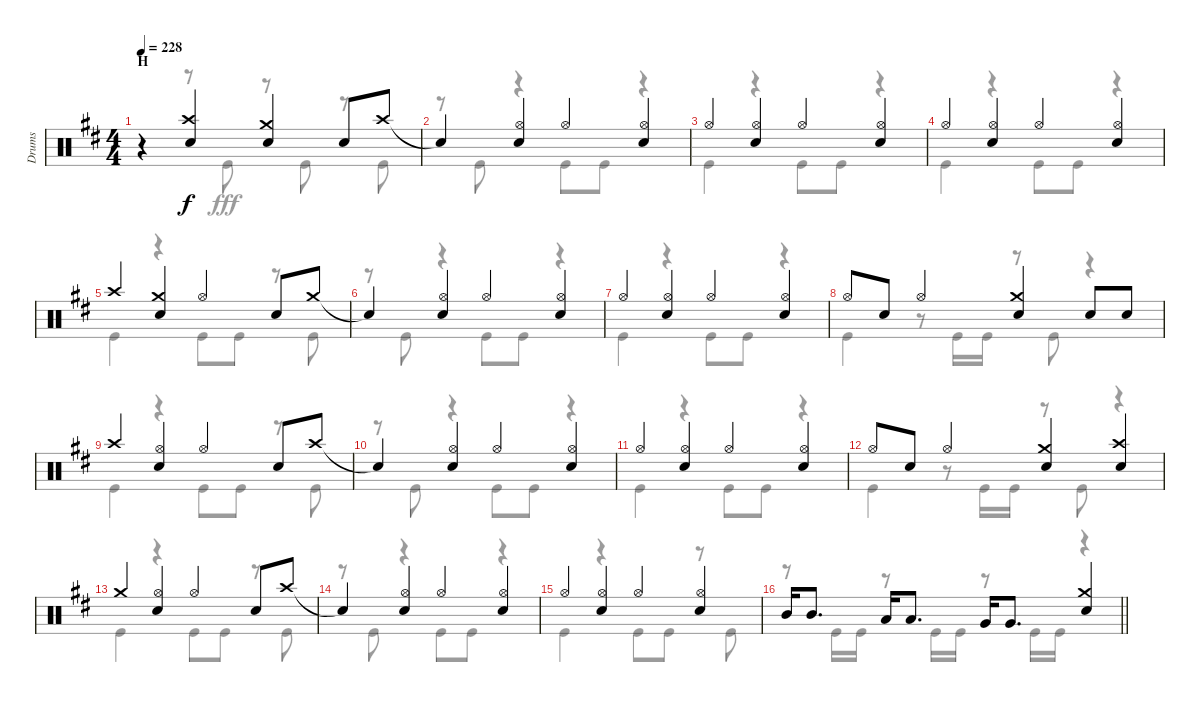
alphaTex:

\track ("Drums" "Drums") {instrument percussion}
\staff {score}
\articulation defaults
\voice
\ts (4 4)
\section ("" "H")
\tempo 228
\clef neutral
\ks d
r.4{dy f} ("Crash high (hit)" "Snare (hit) 2").4 ("Crash medium (hit)" "Snare (hit) 2").4 "Snare (hit) 2".8 "Crash high (hit)".8 |
"Snare (hit)"{t}.4 ("Hi-Hat (open)" "Snare (hit) 2").4 "Hi-Hat (open)".4 ("Hi-Hat (open)" "Snare (hit) 2").4 |
"Hi-Hat (open)".4 ("Hi-Hat (open)" "Snare (hit) 2").4 "Hi-Hat (open)".4 ("Hi-Hat (open)" "Snare (hit) 2").4 |
"Hi-Hat (open)".4 ("Hi-Hat (open)" "Snare (hit) 2").4 "Hi-Hat (open)".4 ("Hi-Hat (open)" "Snare (hit) 2").4 |
"Crash high (hit)".4 ("Crash medium (hit)" "Snare (hit) 2").4 "Hi-Hat (open)".4 "Snare (hit) 2".8 "Crash medium (hit)".8 |
"Snare (hit)"{t}.4 ("Hi-Hat (open)" "Snare (hit) 2").4 "Hi-Hat (open)".4 ("Hi-Hat (open)" "Snare (hit) 2").4 |
"Hi-Hat (open)".4 ("Hi-Hat (open)" "Snare (hit) 2").4 "Hi-Hat (open)".4 ("Hi-Hat (open)" "Snare (hit) 2").4 |
"Hi-Hat (open)".8 "Snare (hit) 2".8 "Hi-Hat (open)".4 ("Crash medium (hit)" "Snare (hit) 2").4 "Snare (hit) 2".8 "Snare (hit) 2".8 |
"Crash high (hit)".4 ("Hi-Hat (open)" "Snare (hit) 2").4 "Hi-Hat (open)".4 "Snare (hit) 2".8 "Crash high (hit)".8 |
"Snare (hit)"{t}.4 ("Hi-Hat (open)" "Snare (hit) 2").4 "Hi-Hat (open)".4 ("Hi-Hat (open)" "Snare (hit) 2").4 |
"Hi-Hat (open)".4 ("Hi-Hat (open)" "Snare (hit) 2").4 "Hi-Hat (open)".4 ("Hi-Hat (open)" "Snare (hit) 2").4 |
"Hi-Hat (open)".8 "Snare (hit) 2".8 "Hi-Hat (open)".4 ("Crash medium (hit)" "Snare (hit) 2").4 ("Crash high (hit)" "Snare (hit) 2").4 |
"Crash medium (hit)".4 ("Hi-Hat (open)" "Snare (hit) 2").4 "Hi-Hat (open)".4 "Snare (hit) 2".8 "Crash high (hit)".8 |
"Snare (hit)"{t}.4 ("Hi-Hat (open)" "Snare (hit) 2").4 "Hi-Hat (open)".4 ("Hi-Hat (open)" "Snare (hit) 2").4 |
"Hi-Hat (open)".4 ("Hi-Hat (open)" "Snare (hit) 2").4 "Hi-Hat (open)".4 ("Hi-Hat (open)" "Snare (hit) 2").4 |
\barLineRight lightlight "Mid Tom (hit)".16 "Mid Tom (hit)".8{d} "Low Tom (hit)".16 "Low Tom (hit)".8{d} "Very Low Tom (hit)".16 "Very Low Tom (hit)".8{d}
("Crash medium (hit)" "Snare (hit) 2").4
\voice
\clef neutral
\ottava regular
\simile none
\ks d
r.4{dy fff} r.8 "Kick (hit)".8 r.8 "Kick (hit)".8 r.8 "Kick (hit)".8 |
r.8 "Kick (hit)".8 r.4 "Kick (hit)".8 "Kick (hit)".8 r.4 |
"Kick (hit)".4 r.4 "Kick (hit)".8 "Kick (hit)".8 r.4 |
"Kick (hit)".4 r.4 "Kick (hit)".8 "Kick (hit)".8 r.4 |
"Kick (hit)".4 r.4 "Kick (hit)".8 "Kick (hit)".8 r.8 "Kick (hit)".8 |
r.8 "Kick (hit)".8 r.4 "Kick (hit)".8 "Kick (hit)".8 r.4 |
"Kick (hit)".4 r.4 "Kick (hit)".8 "Kick (hit)".8 r.4 |
"Kick (hit)".4 r.8 "Kick (hit)".16 "Kick (hit)".16 r.8 "Kick (hit)".8 r.4 |
"Kick (hit)".4 r.4 "Kick (hit)".8 "Kick (hit)".8 r.8 "Kick (hit)".8 |
r.8 "Kick (hit)".8 r.4 "Kick (hit)".8 "Kick (hit)".8 r.4 |
"Kick (hit)".4 r.4 "Kick (hit)".8 "Kick (hit)".8 r.4 |
"Kick (hit)".4 r.8 "Kick (hit)".16 "Kick (hit)".16 r.8 "Kick (hit)".8 r.4 |
"Kick (hit)".4 r.4 "Kick (hit)".8 "Kick (hit)".8 r.8 "Kick (hit)".8 |
r.8 "Kick (hit)".8 r.4 "Kick (hit)".8 "Kick (hit)".8 r.4 |
"Kick (hit)".4 r.4 "Kick (hit)".8 "Kick (hit)".8 r.8 "Kick (hit)".8 |
\barLineRight lightlight
r.8 "Kick (hit)".16 "Kick (hit)".16 r.8 "Kick (hit)".16 "Kick (hit)".16 r.8 "Kick (hit)".16 "Kick (hit)".16 r.4
